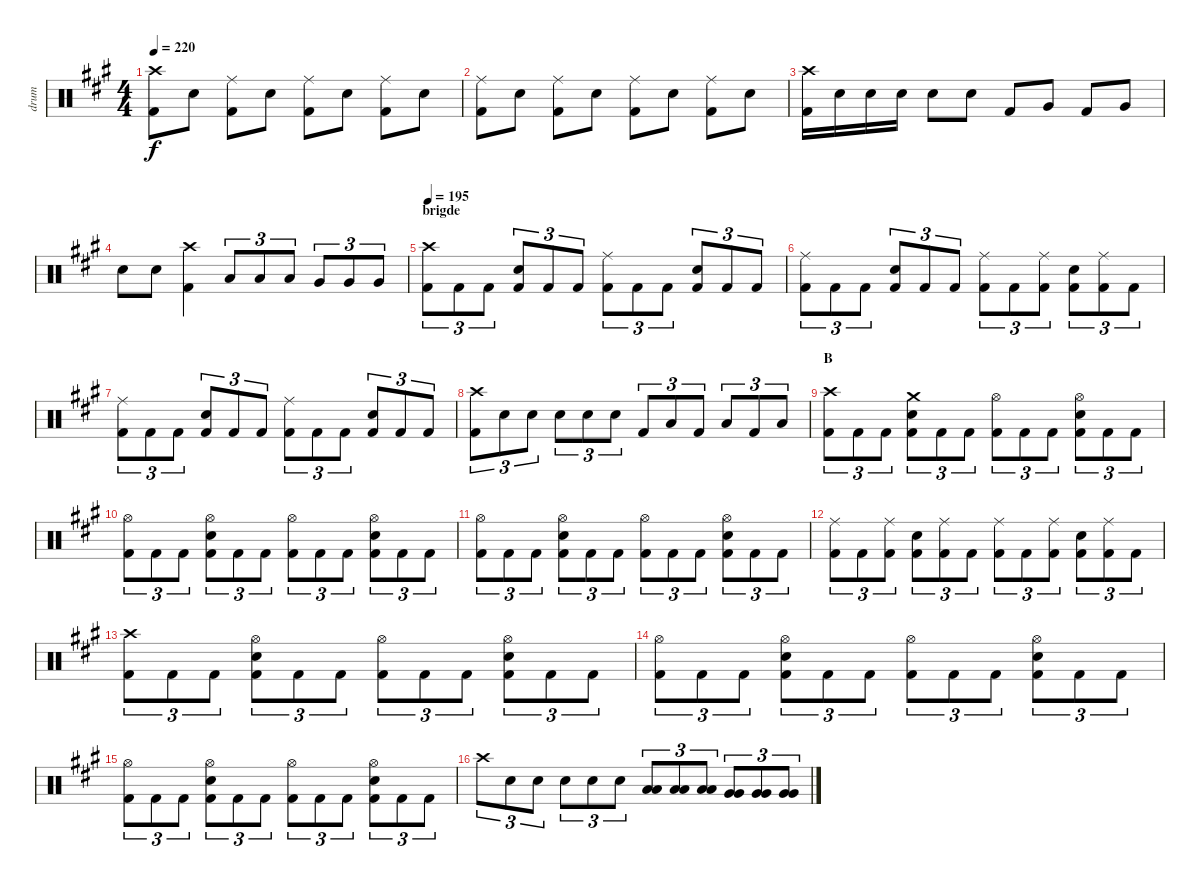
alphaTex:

\track ("drum" "drum") {instrument percussion}
\staff {score}
\articulation defaults
\ts (4 4)
\tempo 220
\clef neutral
\ks a
("Crash high (hit)" "Kick (hit) 2").8{dy f} "Electric Snare (hit)".8 ("Ride (middle)" "Kick (hit) 2").8 "Electric Snare (hit)".8 ("Ride (middle)" "Kick (hit) 2").8 "Electric Snare (hit)".8 ("Ride (middle)" "Kick (hit) 2").8 "Electric Snare (hit)".8 |
("Ride (middle)" "Kick (hit) 2").8 "Electric Snare (hit)".8 ("Ride (middle)" "Kick (hit) 2").8 "Electric Snare (hit)".8 ("Ride (middle)" "Kick (hit) 2").8 "Electric Snare (hit)".8 ("Ride (middle)" "Kick (hit) 2").8 "Electric Snare (hit)".8 |
("Crash high (hit)" "Kick (hit) 2").16 "Electric Snare (hit)".16 "Electric Snare (hit)".16 "Electric Snare (hit)".16 "Electric Snare (hit)".8 "Electric Snare (hit)".8 "Kick (hit) 2".8 "Very Low Tom (hit)".8 "Kick (hit) 2".8 "Very Low Tom (hit)".8 |
"Electric Snare (hit)".8 "Electric Snare (hit)".8 ("Crash high (hit)" "Kick (hit) 2").4 "Low Tom (hit)".8{tu (3 2)} "Low Tom (hit)".8{tu (3 2)} "Low Tom (hit)".8{tu (3 2)} "Very Low Tom (hit)".8{tu (3 2)} "Very Low Tom (hit)".8{tu (3 2)} "Very Low Tom (hit)".8{tu (3 2)} |
\section ("" "brigde")
\tempo 195
("Crash high (hit)" "Kick (hit) 2").8{tu (3 2)} "Kick (hit) 2".8{tu (3 2)} "Kick (hit) 2".8{tu (3 2)} ("Electric Snare (hit)" "Kick (hit) 2").8{tu (3 2)} "Kick (hit) 2".8{tu (3 2)} "Kick (hit) 2".8{tu (3 2)} ("Ride (middle)" "Kick (hit) 2").8{tu (3 2)} "Kick (hit) 2".8{tu (3 2)} "Kick (hit) 2".8{tu (3 2)} ("Electric Snare (hit)" "Kick (hit) 2").8{tu (3 2)} "Kick (hit) 2".8{tu (3 2)} "Kick (hit) 2".8{tu (3 2)} |
("Ride (middle)" "Kick (hit) 2").8{tu (3 2)} "Kick (hit) 2".8{tu (3 2)} "Kick (hit) 2".8{tu (3 2)} ("Electric Snare (hit)" "Kick (hit) 2").8{tu (3 2)} "Kick (hit) 2".8{tu (3 2)} "Kick (hit) 2".8{tu (3 2)} ("Ride (middle)" "Kick (hit) 2").8{tu (3 2)} "Kick (hit) 2".8{tu (3 2)} ("Ride (middle)" "Kick (hit) 2").8{tu (3 2)} ("Electric Snare (hit)" "Kick (hit) 2").8{tu (3 2)} ("Ride (middle)" "Kick (hit) 2").8{tu (3 2)} "Kick (hit) 2".8{tu (3 2)} |
("Ride (middle)" "Kick (hit) 2").8{tu (3 2)} "Kick (hit) 2".8{tu (3 2)} "Kick (hit) 2".8{tu (3 2)} ("Electric Snare (hit)" "Kick (hit) 2").8{tu (3 2)} "Kick (hit) 2".8{tu (3 2)} "Kick (hit) 2".8{tu (3 2)} ("Ride (middle)" "Kick (hit) 2").8{tu (3 2)} "Kick (hit) 2".8{tu (3 2)} "Kick (hit) 2".8{tu (3 2)} ("Electric Snare (hit)" "Kick (hit) 2").8{tu (3 2)} "Kick (hit) 2".8{tu (3 2)} "Kick (hit) 2".8{tu (3 2)} |
("Crash high (hit)" "Kick (hit) 2").8{tu (3 2)} "Electric Snare (hit)".8{tu (3 2)} "Electric Snare (hit)".8{tu (3 2)} "Electric Snare (hit)".8{tu (3 2)} "Electric Snare (hit)".8{tu (3 2)} "Electric Snare (hit)".8{tu (3 2)} "Kick (hit) 2".8{tu (3 2)} "Low Tom (hit)".8{tu (3 2)} "Kick (hit) 2".8{tu (3 2)} "Low Tom (hit)".8{tu (3 2)} "Kick (hit) 2".8{tu (3 2)} "Low Tom (hit)".8{tu (3 2)} |
\section ("" "B")
("Crash high (hit)" "Kick (hit) 2").8{tu (3 2)} "Kick (hit) 2".8{tu (3 2)} "Kick (hit) 2".8{tu (3 2)} ("Crash medium (hit)" "Electric Snare (hit)" "Kick (hit) 2").8{tu (3 2)} "Kick (hit) 2".8{tu (3 2)} "Kick (hit) 2".8{tu (3 2)} ("Hi-Hat (open)" "Kick (hit) 2").8{tu (3 2)} "Kick (hit) 2".8{tu (3 2)} "Kick (hit) 2".8{tu (3 2)} ("Hi-Hat (open)" "Electric Snare (hit)" "Kick (hit) 2").8{tu (3 2)} "Kick (hit) 2".8{tu (3 2)} "Kick (hit) 2".8{tu (3 2)} |
("Hi-Hat (open)" "Kick (hit) 2").8{tu (3 2)} "Kick (hit) 2".8{tu (3 2)} "Kick (hit) 2".8{tu (3 2)} ("Hi-Hat (open)" "Electric Snare (hit)" "Kick (hit) 2").8{tu (3 2)} "Kick (hit) 2".8{tu (3 2)} "Kick (hit) 2".8{tu (3 2)} ("Hi-Hat (open)" "Kick (hit) 2").8{tu (3 2)} "Kick (hit) 2".8{tu (3 2)} "Kick (hit) 2".8{tu (3 2)} ("Hi-Hat (open)" "Electric Snare (hit)" "Kick (hit) 2").8{tu (3 2)} "Kick (hit) 2".8{tu (3 2)} "Kick (hit) 2".8{tu (3 2)} |
("Hi-Hat (open)" "Kick (hit) 2").8{tu (3 2)} "Kick (hit) 2".8{tu (3 2)} "Kick (hit) 2".8{tu (3 2)} ("Hi-Hat (open)" "Electric Snare (hit)" "Kick (hit) 2").8{tu (3 2)} "Kick (hit) 2".8{tu (3 2)} "Kick (hit) 2".8{tu (3 2)} ("Hi-Hat (open)" "Kick (hit) 2").8{tu (3 2)} "Kick (hit) 2".8{tu (3 2)} "Kick (hit) 2".8{tu (3 2)} ("Hi-Hat (open)" "Electric Snare (hit)" "Kick (hit) 2").8{tu (3 2)} "Kick (hit) 2".8{tu (3 2)} "Kick (hit) 2".8{tu (3 2)} |
("Ride (middle)" "Kick (hit) 2").8{tu (3 2)} "Kick (hit) 2".8{tu (3 2)} ("Ride (middle)" "Kick (hit) 2").8{tu (3 2)} ("Electric Snare (hit)" "Kick (hit) 2").8{tu (3 2)} ("Ride (middle)" "Kick (hit) 2").8{tu (3 2)} "Kick (hit) 2".8{tu (3 2)} ("Ride (middle)" "Kick (hit) 2").8{tu (3 2)} "Kick (hit) 2".8{tu (3 2)} ("Ride (middle)" "Kick (hit) 2").8{tu (3 2)} ("Electric Snare (hit)" "Kick (hit) 2").8{tu (3 2)} ("Ride (middle)" "Kick (hit) 2").8{tu (3 2)} "Kick (hit) 2".8{tu (3 2)} |
("Crash high (hit)" "Kick (hit) 2").8{tu (3 2)} "Kick (hit) 2".8{tu (3 2)} "Kick (hit) 2".8{tu (3 2)} ("Hi-Hat (open)" "Electric Snare (hit)" "Kick (hit) 2").8{tu (3 2)} "Kick (hit) 2".8{tu (3 2)} "Kick (hit) 2".8{tu (3 2)} ("Hi-Hat (open)" "Kick (hit) 2").8{tu (3 2)} "Kick (hit) 2".8{tu (3 2)} "Kick (hit) 2".8{tu (3 2)} ("Hi-Hat (open)" "Electric Snare (hit)" "Kick (hit) 2").8{tu (3 2)} "Kick (hit) 2".8{tu (3 2)} "Kick (hit) 2".8{tu (3 2)} |
("Hi-Hat (open)" "Kick (hit) 2").8{tu (3 2)} "Kick (hit) 2".8{tu (3 2)} "Kick (hit) 2".8{tu (3 2)} ("Hi-Hat (open)" "Electric Snare (hit)" "Kick (hit) 2").8{tu (3 2)} "Kick (hit) 2".8{tu (3 2)} "Kick (hit) 2".8{tu (3 2)} ("Hi-Hat (open)" "Kick (hit) 2").8{tu (3 2)} "Kick (hit) 2".8{tu (3 2)} "Kick (hit) 2".8{tu (3 2)} ("Hi-Hat (open)" "Electric Snare (hit)" "Kick (hit) 2").8{tu (3 2)} "Kick (hit) 2".8{tu (3 2)} "Kick (hit) 2".8{tu (3 2)} |
("Hi-Hat (open)" "Kick (hit) 2").8{tu (3 2)} "Kick (hit) 2".8{tu (3 2)} "Kick (hit) 2".8{tu (3 2)} ("Hi-Hat (open)" "Electric Snare (hit)" "Kick (hit) 2").8{tu (3 2)} "Kick (hit) 2".8{tu (3 2)} "Kick (hit) 2".8{tu (3 2)} ("Hi-Hat (open)" "Kick (hit) 2").8{tu (3 2)} "Kick (hit) 2".8{tu (3 2)} "Kick (hit) 2".8{tu (3 2)} ("Hi-Hat (open)" "Electric Snare (hit)" "Kick (hit) 2").8{tu (3 2)} "Kick (hit) 2".8{tu (3 2)} "Kick (hit) 2".8{tu (3 2)} |
"Crash high (hit)".8{tu (3 2)} "Electric Snare (hit)".8{tu (3 2)} "Electric Snare (hit)".8{tu (3 2)} "Electric Snare (hit)".8{tu (3 2)} "Electric Snare (hit)".8{tu (3 2)} "Electric Snare (hit)".8{tu (3 2)} ("Low Tom (hit)" "Low Tom (hit)").8{tu (3 2)} ("Low Tom (hit)" "Low Tom (hit)").8{tu (3 2)} ("Low Tom (hit)" "Low Tom (hit)").8{tu (3 2)} ("Very Low Tom (hit)" "Very Low Tom (hit)").8{tu (3 2)} ("Very Low Tom (hit)" "Very Low Tom (hit)").8{tu (3 2)} ("Very Low Tom (hit)" "Very Low Tom (hit)").8{tu (3 2)}
